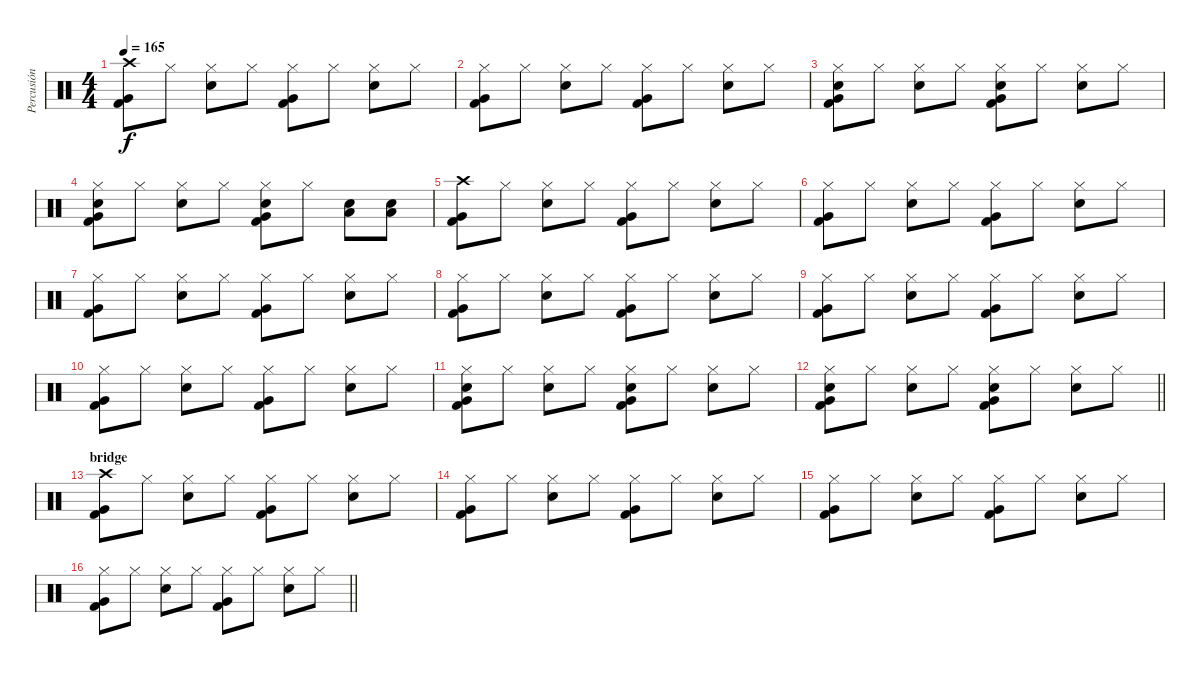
\track ("Percusión" "Percusión") {instrument percussion}
\staff {score}
\articulation defaults
\ts (4 4)
\tempo 165
\clef neutral
\ks c
("Crash high (hit)" "Kick (hit) 2" "Very Low Tom (hit)").8{dy f} "Hi-Hat (closed)".8 ("Hi-Hat (closed)" "Electric Snare (hit)").8 "Hi-Hat (closed)".8 ("Hi-Hat (closed)" "Kick (hit) 2" "Very Low Tom (hit)").8 "Hi-Hat (closed)".8 ("Hi-Hat (closed)" "Electric Snare (hit)").8 "Hi-Hat (closed)".8 |
("Hi-Hat (closed)" "Kick (hit) 2" "Very Low Tom (hit)").8 "Hi-Hat (closed)".8 ("Hi-Hat (closed)" "Electric Snare (hit)").8 "Hi-Hat (closed)".8 ("Hi-Hat (closed)" "Kick (hit) 2" "Very Low Tom (hit)").8 "Hi-Hat (closed)".8 ("Hi-Hat (closed)" "Electric Snare (hit)").8 "Hi-Hat (closed)".8 |
("Hi-Hat (closed)" "Electric Snare (hit)" "Kick (hit) 2" "Very Low Tom (hit)").8 "Hi-Hat (closed)".8 ("Hi-Hat (closed)" "Electric Snare (hit)").8 "Hi-Hat (closed)".8 ("Hi-Hat (closed)" "Electric Snare (hit)" "Kick (hit) 2" "Very Low Tom (hit)").8 "Hi-Hat (closed)".8 ("Hi-Hat (closed)" "Electric Snare (hit)").8 "Hi-Hat (closed)".8 |
("Hi-Hat (closed)" "Electric Snare (hit)" "Kick (hit) 2" "Very Low Tom (hit)").8 "Hi-Hat (closed)".8 ("Hi-Hat (closed)" "Electric Snare (hit)").8 "Hi-Hat (closed)".8 ("Hi-Hat (closed)" "Electric Snare (hit)" "Kick (hit) 2" "Very Low Tom (hit)").8 "Hi-Hat (closed)".8 ("Electric Snare (hit)" "Low Tom (hit)").8 ("Electric Snare (hit)" "Low Tom (hit)").8 |
("Crash high (hit)" "Kick (hit) 2" "Very Low Tom (hit)").8 "Hi-Hat (closed)".8 ("Hi-Hat (closed)" "Electric Snare (hit)").8 "Hi-Hat (closed)".8 ("Hi-Hat (closed)" "Kick (hit) 2" "Very Low Tom (hit)").8 "Hi-Hat (closed)".8 ("Hi-Hat (closed)" "Electric Snare (hit)").8 "Hi-Hat (closed)".8 |
("Hi-Hat (closed)" "Kick (hit) 2" "Very Low Tom (hit)").8 "Hi-Hat (closed)".8 ("Hi-Hat (closed)" "Electric Snare (hit)").8 "Hi-Hat (closed)".8 ("Hi-Hat (closed)" "Kick (hit) 2" "Very Low Tom (hit)").8 "Hi-Hat (closed)".8 ("Hi-Hat (closed)" "Electric Snare (hit)").8 "Hi-Hat (closed)".8 |
("Hi-Hat (closed)" "Kick (hit) 2" "Very Low Tom (hit)").8 "Hi-Hat (closed)".8 ("Hi-Hat (closed)" "Electric Snare (hit)").8 "Hi-Hat (closed)".8 ("Hi-Hat (closed)" "Kick (hit) 2" "Very Low Tom (hit)").8 "Hi-Hat (closed)".8 ("Hi-Hat (closed)" "Electric Snare (hit)").8 "Hi-Hat (closed)".8 |
("Hi-Hat (closed)" "Kick (hit) 2" "Very Low Tom (hit)").8 "Hi-Hat (closed)".8 ("Hi-Hat (closed)" "Electric Snare (hit)").8 "Hi-Hat (closed)".8 ("Hi-Hat (closed)" "Kick (hit) 2" "Very Low Tom (hit)").8 "Hi-Hat (closed)".8 ("Hi-Hat (closed)" "Electric Snare (hit)").8 "Hi-Hat (closed)".8 |
("Hi-Hat (closed)" "Kick (hit) 2" "Very Low Tom (hit)").8 "Hi-Hat (closed)".8 ("Hi-Hat (closed)" "Electric Snare (hit)").8 "Hi-Hat (closed)".8 ("Hi-Hat (closed)" "Kick (hit) 2" "Very Low Tom (hit)").8 "Hi-Hat (closed)".8 ("Hi-Hat (closed)" "Electric Snare (hit)").8 "Hi-Hat (closed)".8 |
("Hi-Hat (closed)" "Kick (hit) 2" "Very Low Tom (hit)").8 "Hi-Hat (closed)".8 ("Hi-Hat (closed)" "Electric Snare (hit)").8 "Hi-Hat (closed)".8 ("Hi-Hat (closed)" "Kick (hit) 2" "Very Low Tom (hit)").8 "Hi-Hat (closed)".8 ("Hi-Hat (closed)" "Electric Snare (hit)").8 "Hi-Hat (closed)".8 |
("Hi-Hat (closed)" "Electric Snare (hit)" "Kick (hit) 2" "Very Low Tom (hit)").8 "Hi-Hat (closed)".8 ("Hi-Hat (closed)" "Electric Snare (hit)").8 "Hi-Hat (closed)".8 ("Hi-Hat (closed)" "Electric Snare (hit)" "Kick (hit) 2" "Very Low Tom (hit)").8 "Hi-Hat (closed)".8 ("Hi-Hat (closed)" "Electric Snare (hit)").8 "Hi-Hat (closed)".8 |
\barLineRight lightlight
("Hi-Hat (closed)" "Electric Snare (hit)" "Kick (hit) 2" "Very Low Tom (hit)").8 "Hi-Hat (closed)".8 ("Hi-Hat (closed)" "Electric Snare (hit)").8 "Hi-Hat (closed)".8 ("Hi-Hat (closed)" "Electric Snare (hit)" "Kick (hit) 2" "Very Low Tom (hit)").8 "Hi-Hat (closed)".8 ("Hi-Hat (closed)" "Electric Snare (hit)").8 "Hi-Hat (closed)".8 |
\section ("" "bridge")
("Crash high (hit)" "Kick (hit) 2" "Very Low Tom (hit)").8 "Hi-Hat (closed)".8 ("Hi-Hat (closed)" "Electric Snare (hit)").8 "Hi-Hat (closed)".8 ("Hi-Hat (closed)" "Kick (hit) 2" "Very Low Tom (hit)").8 "Hi-Hat (closed)".8 ("Hi-Hat (closed)" "Electric Snare (hit)").8 "Hi-Hat (closed)".8 |
("Hi-Hat (closed)" "Kick (hit) 2" "Very Low Tom (hit)").8 "Hi-Hat (closed)".8 ("Hi-Hat (closed)" "Electric Snare (hit)").8 "Hi-Hat (closed)".8 ("Hi-Hat (closed)" "Kick (hit) 2" "Very Low Tom (hit)").8 "Hi-Hat (closed)".8 ("Hi-Hat (closed)" "Electric Snare (hit)").8 "Hi-Hat (closed)".8 |
("Hi-Hat (closed)" "Kick (hit) 2" "Very Low Tom (hit)").8 "Hi-Hat (closed)".8 ("Hi-Hat (closed)" "Electric Snare (hit)").8 "Hi-Hat (closed)".8 ("Hi-Hat (closed)" "Kick (hit) 2" "Very Low Tom (hit)").8 "Hi-Hat (closed)".8 ("Hi-Hat (closed)" "Electric Snare (hit)").8 "Hi-Hat (closed)".8 |
\barLineRight lightlight
("Hi-Hat (closed)" "Kick (hit) 2" "Very Low Tom (hit)").8 "Hi-Hat (closed)".8 ("Hi-Hat (closed)" "Electric Snare (hit)").8 "Hi-Hat (closed)".8 ("Hi-Hat (closed)" "Kick (hit) 2" "Very Low Tom (hit)").8 "Hi-Hat (closed)".8 ("Hi-Hat (closed)" "Electric Snare (hit)").8 "Hi-Hat (closed)".8
